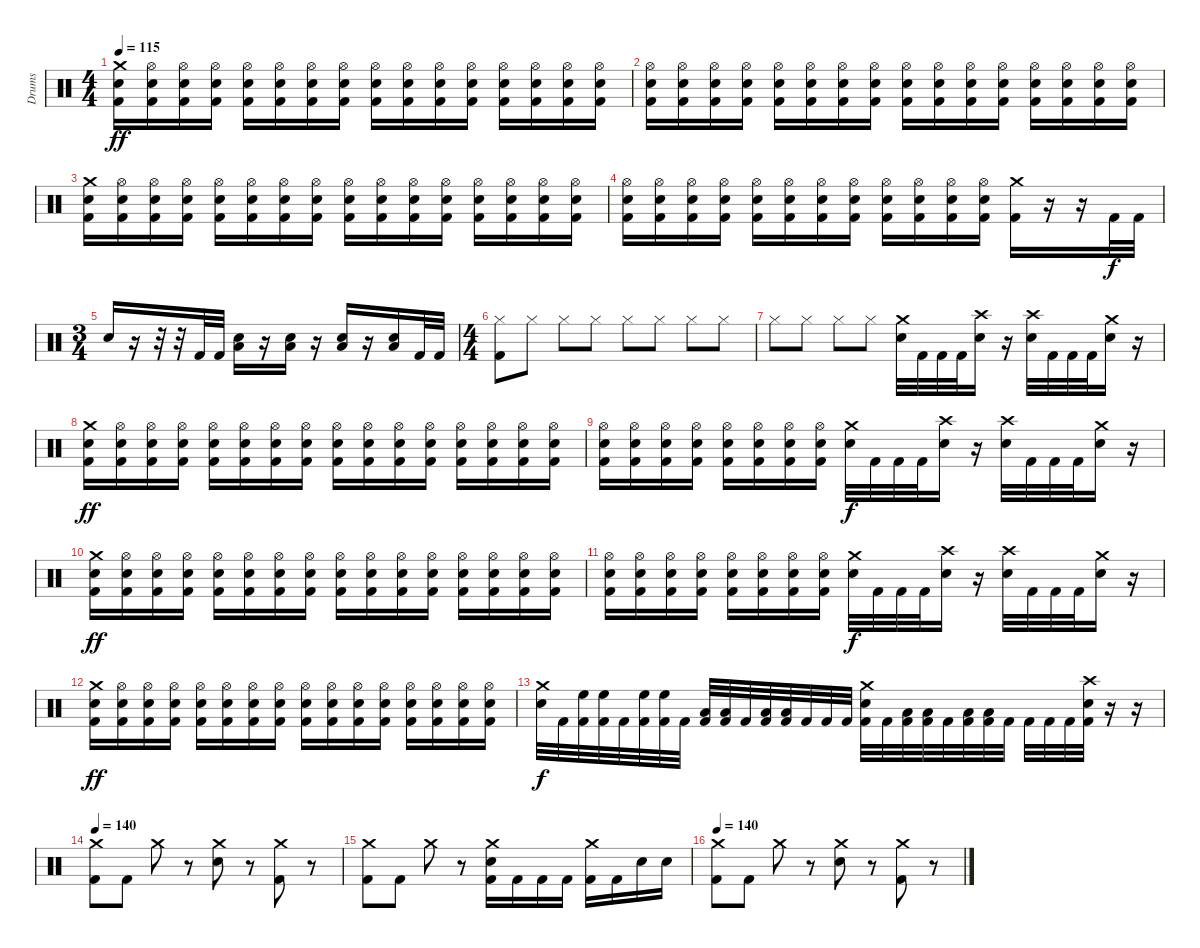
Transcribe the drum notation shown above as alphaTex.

\track ("Drums" "Drums") {instrument percussion}
\staff {score}
\articulation defaults
\ts (4 4)
\tempo 115
\clef neutral
\ks c
("Crash medium (hit)" "Electric Snare (hit)" "Kick (hit) 2").16{dy ff} ("Hi-Hat (open)" "Electric Snare (hit)" "Kick (hit) 2").16 ("Hi-Hat (open)" "Electric Snare (hit)" "Kick (hit) 2").16 ("Hi-Hat (open)" "Electric Snare (hit)" "Kick (hit) 2").16 ("Hi-Hat (open)" "Electric Snare (hit)" "Kick (hit) 2").16 ("Hi-Hat (open)" "Electric Snare (hit)" "Kick (hit) 2").16 ("Hi-Hat (open)" "Electric Snare (hit)" "Kick (hit) 2").16 ("Hi-Hat (open)" "Electric Snare (hit)" "Kick (hit) 2").16 ("Hi-Hat (open)" "Electric Snare (hit)" "Kick (hit) 2").16 ("Hi-Hat (open)" "Electric Snare (hit)" "Kick (hit) 2").16 ("Hi-Hat (open)" "Electric Snare (hit)" "Kick (hit) 2").16 ("Hi-Hat (open)" "Electric Snare (hit)" "Kick (hit) 2").16 ("Hi-Hat (open)" "Electric Snare (hit)" "Kick (hit) 2").16 ("Hi-Hat (open)" "Electric Snare (hit)" "Kick (hit) 2").16 ("Hi-Hat (open)" "Electric Snare (hit)" "Kick (hit) 2").16 ("Hi-Hat (open)" "Electric Snare (hit)" "Kick (hit) 2").16 |
("Hi-Hat (open)" "Electric Snare (hit)" "Kick (hit) 2").16 ("Hi-Hat (open)" "Electric Snare (hit)" "Kick (hit) 2").16 ("Hi-Hat (open)" "Electric Snare (hit)" "Kick (hit) 2").16 ("Hi-Hat (open)" "Electric Snare (hit)" "Kick (hit) 2").16 ("Hi-Hat (open)" "Electric Snare (hit)" "Kick (hit) 2").16 ("Hi-Hat (open)" "Electric Snare (hit)" "Kick (hit) 2").16 ("Hi-Hat (open)" "Electric Snare (hit)" "Kick (hit) 2").16 ("Hi-Hat (open)" "Electric Snare (hit)" "Kick (hit) 2").16 ("Hi-Hat (open)" "Electric Snare (hit)" "Kick (hit) 2").16 ("Hi-Hat (open)" "Electric Snare (hit)" "Kick (hit) 2").16 ("Hi-Hat (open)" "Electric Snare (hit)" "Kick (hit) 2").16 ("Hi-Hat (open)" "Electric Snare (hit)" "Kick (hit) 2").16 ("Hi-Hat (open)" "Electric Snare (hit)" "Kick (hit) 2").16 ("Hi-Hat (open)" "Electric Snare (hit)" "Kick (hit) 2").16 ("Hi-Hat (open)" "Electric Snare (hit)" "Kick (hit) 2").16 ("Hi-Hat (open)" "Electric Snare (hit)" "Kick (hit) 2").16 |
("Crash medium (hit)" "Electric Snare (hit)" "Kick (hit) 2").16 ("Hi-Hat (open)" "Electric Snare (hit)" "Kick (hit) 2").16 ("Hi-Hat (open)" "Electric Snare (hit)" "Kick (hit) 2").16 ("Hi-Hat (open)" "Electric Snare (hit)" "Kick (hit) 2").16 ("Hi-Hat (open)" "Electric Snare (hit)" "Kick (hit) 2").16 ("Hi-Hat (open)" "Electric Snare (hit)" "Kick (hit) 2").16 ("Hi-Hat (open)" "Electric Snare (hit)" "Kick (hit) 2").16 ("Hi-Hat (open)" "Electric Snare (hit)" "Kick (hit) 2").16 ("Hi-Hat (open)" "Electric Snare (hit)" "Kick (hit) 2").16 ("Hi-Hat (open)" "Electric Snare (hit)" "Kick (hit) 2").16 ("Hi-Hat (open)" "Electric Snare (hit)" "Kick (hit) 2").16 ("Hi-Hat (open)" "Electric Snare (hit)" "Kick (hit) 2").16 ("Hi-Hat (open)" "Electric Snare (hit)" "Kick (hit) 2").16 ("Hi-Hat (open)" "Electric Snare (hit)" "Kick (hit) 2").16 ("Hi-Hat (open)" "Electric Snare (hit)" "Kick (hit) 2").16 ("Hi-Hat (open)" "Electric Snare (hit)" "Kick (hit) 2").16 |
("Hi-Hat (open)" "Electric Snare (hit)" "Kick (hit) 2").16 ("Hi-Hat (open)" "Electric Snare (hit)" "Kick (hit) 2").16 ("Hi-Hat (open)" "Electric Snare (hit)" "Kick (hit) 2").16 ("Hi-Hat (open)" "Electric Snare (hit)" "Kick (hit) 2").16 ("Hi-Hat (open)" "Electric Snare (hit)" "Kick (hit) 2").16 ("Hi-Hat (open)" "Electric Snare (hit)" "Kick (hit) 2").16 ("Hi-Hat (open)" "Electric Snare (hit)" "Kick (hit) 2").16 ("Hi-Hat (open)" "Electric Snare (hit)" "Kick (hit) 2").16 ("Hi-Hat (open)" "Electric Snare (hit)" "Kick (hit) 2").16 ("Hi-Hat (open)" "Electric Snare (hit)" "Kick (hit) 2").16 ("Hi-Hat (open)" "Electric Snare (hit)" "Kick (hit) 2").16 ("Hi-Hat (open)" "Electric Snare (hit)" "Kick (hit) 2").16 ("Crash medium (hit)" "Kick (hit) 2").16 r.16 r.16 "Kick (hit) 2".32{dy f} "Kick (hit) 2".32 |
\ts (3 4)
"Electric Snare (hit)".16 r.16 r.32 r.32 "Kick (hit) 2".32 "Kick (hit) 2".32 ("Low Floor Tom (hit)" "Electric Snare (hit)").16 r.16 ("Low Floor Tom (hit)" "Electric Snare (hit)").16 r.16 ("Low Floor Tom (hit)" "Electric Snare (hit)").16 r.16 ("Low Floor Tom (hit)" "Electric Snare (hit)").16 "Kick (hit) 2".32 "Kick (hit) 2".32 |
\ts (4 4)
("Hi-Hat (closed)" "Kick (hit) 2").8 "Hi-Hat (closed)".8 "Hi-Hat (closed)".8 "Hi-Hat (closed)".8 "Hi-Hat (closed)".8 "Hi-Hat (closed)".8 "Hi-Hat (closed)".8 "Hi-Hat (closed)".8 |
"Hi-Hat (closed)".8 "Hi-Hat (closed)".8 "Hi-Hat (closed)".8 "Hi-Hat (closed)".8 ("Crash medium (hit)" "Electric Snare (hit)").32 "Kick (hit) 2".32 "Kick (hit) 2".32 "Kick (hit) 2".32 ("Crash high (hit)" "Electric Snare (hit)").16 r.16 ("Crash high (hit)" "Electric Snare (hit)").32 "Kick (hit) 2".32 "Kick (hit) 2".32 "Kick (hit) 2".32 ("Crash medium (hit)" "Electric Snare (hit)").16 r.16 |
("Crash medium (hit)" "Electric Snare (hit)" "Kick (hit) 2").16{dy ff} ("Hi-Hat (open)" "Electric Snare (hit)" "Kick (hit) 2").16 ("Hi-Hat (open)" "Electric Snare (hit)" "Kick (hit) 2").16 ("Hi-Hat (open)" "Electric Snare (hit)" "Kick (hit) 2").16 ("Hi-Hat (open)" "Electric Snare (hit)" "Kick (hit) 2").16 ("Hi-Hat (open)" "Electric Snare (hit)" "Kick (hit) 2").16 ("Hi-Hat (open)" "Electric Snare (hit)" "Kick (hit) 2").16 ("Hi-Hat (open)" "Electric Snare (hit)" "Kick (hit) 2").16 ("Hi-Hat (open)" "Electric Snare (hit)" "Kick (hit) 2").16 ("Hi-Hat (open)" "Electric Snare (hit)" "Kick (hit) 2").16 ("Hi-Hat (open)" "Electric Snare (hit)" "Kick (hit) 2").16 ("Hi-Hat (open)" "Electric Snare (hit)" "Kick (hit) 2").16 ("Hi-Hat (open)" "Electric Snare (hit)" "Kick (hit) 2").16 ("Hi-Hat (open)" "Electric Snare (hit)" "Kick (hit) 2").16 ("Hi-Hat (open)" "Electric Snare (hit)" "Kick (hit) 2").16 ("Hi-Hat (open)" "Electric Snare (hit)" "Kick (hit) 2").16 |
("Hi-Hat (open)" "Electric Snare (hit)" "Kick (hit) 2").16 ("Hi-Hat (open)" "Electric Snare (hit)" "Kick (hit) 2").16 ("Hi-Hat (open)" "Electric Snare (hit)" "Kick (hit) 2").16 ("Hi-Hat (open)" "Electric Snare (hit)" "Kick (hit) 2").16 ("Hi-Hat (open)" "Electric Snare (hit)" "Kick (hit) 2").16 ("Hi-Hat (open)" "Electric Snare (hit)" "Kick (hit) 2").16 ("Hi-Hat (open)" "Electric Snare (hit)" "Kick (hit) 2").16 ("Hi-Hat (open)" "Electric Snare (hit)" "Kick (hit) 2").16 ("Crash medium (hit)" "Electric Snare (hit)").32{dy f} "Kick (hit) 2".32 "Kick (hit) 2".32 "Kick (hit) 2".32 ("Crash high (hit)" "Electric Snare (hit)").16 r.16 ("Crash high (hit)" "Electric Snare (hit)").32 "Kick (hit) 2".32 "Kick (hit) 2".32 "Kick (hit) 2".32 ("Crash medium (hit)" "Electric Snare (hit)").16 r.16 |
("Crash medium (hit)" "Electric Snare (hit)" "Kick (hit) 2").16{dy ff} ("Hi-Hat (open)" "Electric Snare (hit)" "Kick (hit) 2").16 ("Hi-Hat (open)" "Electric Snare (hit)" "Kick (hit) 2").16 ("Hi-Hat (open)" "Electric Snare (hit)" "Kick (hit) 2").16 ("Hi-Hat (open)" "Electric Snare (hit)" "Kick (hit) 2").16 ("Hi-Hat (open)" "Electric Snare (hit)" "Kick (hit) 2").16 ("Hi-Hat (open)" "Electric Snare (hit)" "Kick (hit) 2").16 ("Hi-Hat (open)" "Electric Snare (hit)" "Kick (hit) 2").16 ("Hi-Hat (open)" "Electric Snare (hit)" "Kick (hit) 2").16 ("Hi-Hat (open)" "Electric Snare (hit)" "Kick (hit) 2").16 ("Hi-Hat (open)" "Electric Snare (hit)" "Kick (hit) 2").16 ("Hi-Hat (open)" "Electric Snare (hit)" "Kick (hit) 2").16 ("Hi-Hat (open)" "Electric Snare (hit)" "Kick (hit) 2").16 ("Hi-Hat (open)" "Electric Snare (hit)" "Kick (hit) 2").16 ("Hi-Hat (open)" "Electric Snare (hit)" "Kick (hit) 2").16 ("Hi-Hat (open)" "Electric Snare (hit)" "Kick (hit) 2").16 |
("Hi-Hat (open)" "Electric Snare (hit)" "Kick (hit) 2").16 ("Hi-Hat (open)" "Electric Snare (hit)" "Kick (hit) 2").16 ("Hi-Hat (open)" "Electric Snare (hit)" "Kick (hit) 2").16 ("Hi-Hat (open)" "Electric Snare (hit)" "Kick (hit) 2").16 ("Hi-Hat (open)" "Electric Snare (hit)" "Kick (hit) 2").16 ("Hi-Hat (open)" "Electric Snare (hit)" "Kick (hit) 2").16 ("Hi-Hat (open)" "Electric Snare (hit)" "Kick (hit) 2").16 ("Hi-Hat (open)" "Electric Snare (hit)" "Kick (hit) 2").16 ("Crash medium (hit)" "Electric Snare (hit)").32{dy f} "Kick (hit) 2".32 "Kick (hit) 2".32 "Kick (hit) 2".32 ("Crash high (hit)" "Electric Snare (hit)").16 r.16 ("Crash high (hit)" "Electric Snare (hit)").32 "Kick (hit) 2".32 "Kick (hit) 2".32 "Kick (hit) 2".32 ("Crash medium (hit)" "Electric Snare (hit)").16 r.16 |
("Crash medium (hit)" "Electric Snare (hit)" "Kick (hit) 2").16{dy ff} ("Hi-Hat (open)" "Electric Snare (hit)" "Kick (hit) 2").16 ("Hi-Hat (open)" "Electric Snare (hit)" "Kick (hit) 2").16 ("Hi-Hat (open)" "Electric Snare (hit)" "Kick (hit) 2").16 ("Hi-Hat (open)" "Electric Snare (hit)" "Kick (hit) 2").16 ("Hi-Hat (open)" "Electric Snare (hit)" "Kick (hit) 2").16 ("Hi-Hat (open)" "Electric Snare (hit)" "Kick (hit) 2").16 ("Hi-Hat (open)" "Electric Snare (hit)" "Kick (hit) 2").16 ("Hi-Hat (open)" "Electric Snare (hit)" "Kick (hit) 2").16 ("Hi-Hat (open)" "Electric Snare (hit)" "Kick (hit) 2").16 ("Hi-Hat (open)" "Electric Snare (hit)" "Kick (hit) 2").16 ("Hi-Hat (open)" "Electric Snare (hit)" "Kick (hit) 2").16 ("Hi-Hat (open)" "Electric Snare (hit)" "Kick (hit) 2").16 ("Hi-Hat (open)" "Electric Snare (hit)" "Kick (hit) 2").16 ("Hi-Hat (open)" "Electric Snare (hit)" "Kick (hit) 2").16 ("Hi-Hat (open)" "Electric Snare (hit)" "Kick (hit) 2").16 |
("Crash medium (hit)" "Electric Snare (hit)").32{dy f} "Kick (hit) 2".32 ("High Floor Tom (hit)" "Kick (hit) 2").32 ("High Floor Tom (hit)" "Kick (hit) 2").32 "Kick (hit) 2".32 ("High Floor Tom (hit)" "Kick (hit) 2").32 ("High Floor Tom (hit)" "Kick (hit) 2").32 "Kick (hit) 2".32 ("Low Tom (hit)" "Kick (hit) 2").32 ("Low Tom (hit)" "Kick (hit) 2").32 "Kick (hit) 2".32 ("Low Floor Tom (hit)" "Kick (hit) 2").32 ("Low Floor Tom (hit)" "Kick (hit) 2").32 "Kick (hit) 2".32 "Kick (hit) 2".32 "Kick (hit) 2".32 ("Crash medium (hit)" "Electric Snare (hit)" "Kick (hit) 2").32 "Kick (hit) 2".32 ("Low Tom (hit)" "Kick (hit) 2").32 ("Low Tom (hit)" "Kick (hit) 2").32 "Kick (hit) 2".32 ("Low Tom (hit)" "Kick (hit) 2").32 ("Low Tom (hit)" "Kick (hit) 2").32 "Kick (hit) 2".32 "Kick (hit) 2".32 "Kick (hit) 2".32 "Kick (hit) 2".32 ("Crash high (hit)" "Electric Snare (hit)" "Kick (hit) 2").32 r.16 r.16 |
\tempo 140
("Crash medium (hit)" "Kick (hit) 2").8 "Kick (hit) 2".8 "Crash medium (hit)".8 r.8 ("Crash medium (hit)" "Electric Snare (hit)").8 r.8 ("Crash medium (hit)" "Kick (hit) 2").8 r.8 |
("Crash medium (hit)" "Kick (hit) 2").8 "Kick (hit) 2".8 "Crash medium (hit)".8 r.8 ("Crash medium (hit)" "Electric Snare (hit)" "Kick (hit) 2").16 "Kick (hit) 2".16 "Kick (hit) 2".16 "Kick (hit) 2".16 ("Crash medium (hit)" "Kick (hit) 2").16 "Kick (hit) 2".16 "Electric Snare (hit)".16 "Electric Snare (hit)".16 |
\tempo 140
("Crash medium (hit)" "Kick (hit) 2").8 "Kick (hit) 2".8 "Crash medium (hit)".8 r.8 ("Crash medium (hit)" "Electric Snare (hit)").8 r.8 ("Crash medium (hit)" "Kick (hit) 2").8 r.8
